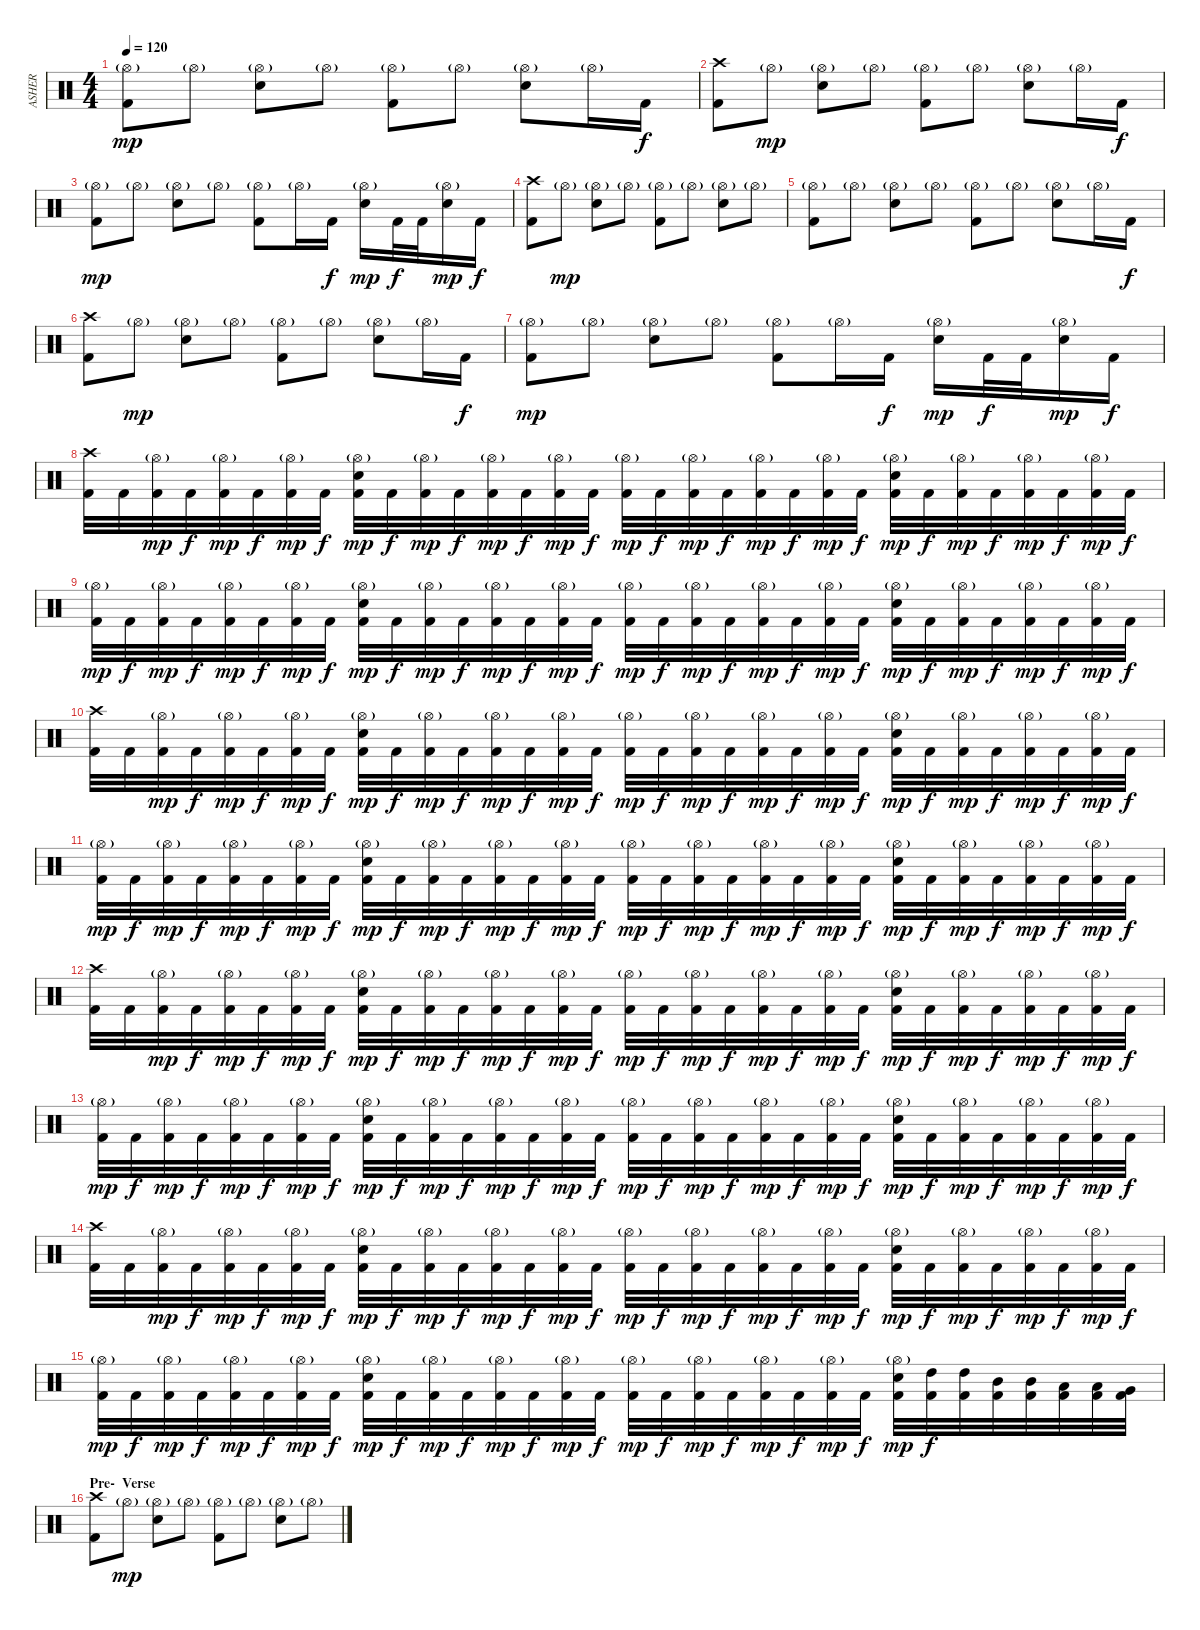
\track ("ASHER" "ASHER") {instrument percussion}
\staff {score}
\articulation defaults
\ts (4 4)
\tempo 120
\clef neutral
\ks c
("Hi-Hat (open)"{g} "Kick (hit) 2").8{dy mp} "Hi-Hat (open)"{g}.8 ("Hi-Hat (open)"{g} "Electric Snare (hit)").8 "Hi-Hat (open)"{g}.8 ("Hi-Hat (open)"{g} "Kick (hit) 2").8 "Hi-Hat (open)"{g}.8 ("Hi-Hat (open)"{g} "Electric Snare (hit)").8 "Hi-Hat (open)"{g}.16 "Kick (hit) 2".16{dy f} |
("Crash high (hit)" "Kick (hit) 2").8 "Hi-Hat (open)"{g}.8{dy mp} ("Hi-Hat (open)"{g} "Electric Snare (hit)").8 "Hi-Hat (open)"{g}.8 ("Hi-Hat (open)"{g} "Kick (hit) 2").8 "Hi-Hat (open)"{g}.8 ("Hi-Hat (open)"{g} "Electric Snare (hit)").8 "Hi-Hat (open)"{g}.16 "Kick (hit) 2".16{dy f} |
("Hi-Hat (open)"{g} "Kick (hit) 2").8{dy mp} "Hi-Hat (open)"{g}.8 ("Hi-Hat (open)"{g} "Electric Snare (hit)").8 "Hi-Hat (open)"{g}.8 ("Hi-Hat (open)"{g} "Kick (hit) 2").8 "Hi-Hat (open)"{g}.16 "Kick (hit) 2".16{dy f} ("Hi-Hat (open)"{g} "Electric Snare (hit)").16{dy mp} "Kick (hit) 2".32{dy f} "Kick (hit) 2".32 ("Hi-Hat (open)"{g} "Electric Snare (hit)").16{dy mp} "Kick (hit) 2".16{dy f} |
("Crash high (hit)" "Kick (hit) 2").8 "Hi-Hat (open)"{g}.8{dy mp} ("Hi-Hat (open)"{g} "Electric Snare (hit)").8 "Hi-Hat (open)"{g}.8 ("Hi-Hat (open)"{g} "Kick (hit) 2").8 "Hi-Hat (open)"{g}.8 ("Hi-Hat (open)"{g} "Electric Snare (hit)").8 "Hi-Hat (open)"{g}.8 |
("Hi-Hat (open)"{g} "Kick (hit) 2").8 "Hi-Hat (open)"{g}.8 ("Hi-Hat (open)"{g} "Electric Snare (hit)").8 "Hi-Hat (open)"{g}.8 ("Hi-Hat (open)"{g} "Kick (hit) 2").8 "Hi-Hat (open)"{g}.8 ("Hi-Hat (open)"{g} "Electric Snare (hit)").8 "Hi-Hat (open)"{g}.16 "Kick (hit) 2".16{dy f} |
("Crash high (hit)" "Kick (hit) 2").8 "Hi-Hat (open)"{g}.8{dy mp} ("Hi-Hat (open)"{g} "Electric Snare (hit)").8 "Hi-Hat (open)"{g}.8 ("Hi-Hat (open)"{g} "Kick (hit) 2").8 "Hi-Hat (open)"{g}.8 ("Hi-Hat (open)"{g} "Electric Snare (hit)").8 "Hi-Hat (open)"{g}.16 "Kick (hit) 2".16{dy f} |
("Hi-Hat (open)"{g} "Kick (hit) 2").8{dy mp} "Hi-Hat (open)"{g}.8 ("Hi-Hat (open)"{g} "Electric Snare (hit)").8 "Hi-Hat (open)"{g}.8 ("Hi-Hat (open)"{g} "Kick (hit) 2").8 "Hi-Hat (open)"{g}.16 "Kick (hit) 2".16{dy f} ("Hi-Hat (open)"{g} "Electric Snare (hit)").16{dy mp} "Kick (hit) 2".32{dy f} "Kick (hit) 2".32 ("Hi-Hat (open)"{g} "Electric Snare (hit)").16{dy mp} "Kick (hit) 2".16{dy f} |
("Crash high (hit)" "Kick (hit) 2").32 "Kick (hit) 2".32 ("Hi-Hat (open)"{g} "Kick (hit) 2").32{dy mp} "Kick (hit) 2".32{dy f} ("Hi-Hat (open)"{g} "Kick (hit) 2").32{dy mp} "Kick (hit) 2".32{dy f} ("Hi-Hat (open)"{g} "Kick (hit) 2").32{dy mp} "Kick (hit) 2".32{dy f} ("Hi-Hat (open)"{g} "Electric Snare (hit)" "Kick (hit) 2").32{dy mp} "Kick (hit) 2".32{dy f} ("Hi-Hat (open)"{g} "Kick (hit) 2").32{dy mp} "Kick (hit) 2".32{dy f} ("Hi-Hat (open)"{g} "Kick (hit) 2").32{dy mp} "Kick (hit) 2".32{dy f} ("Hi-Hat (open)"{g} "Kick (hit) 2").32{dy mp} "Kick (hit) 2".32{dy f} ("Hi-Hat (open)"{g} "Kick (hit) 2").32{dy mp} "Kick (hit) 2".32{dy f} ("Hi-Hat (open)"{g} "Kick (hit) 2").32{dy mp} "Kick (hit) 2".32{dy f} ("Hi-Hat (open)"{g} "Kick (hit) 2").32{dy mp} "Kick (hit) 2".32{dy f} ("Hi-Hat (open)"{g} "Kick (hit) 2").32{dy mp} "Kick (hit) 2".32{dy f} ("Hi-Hat (open)"{g} "Electric Snare (hit)" "Kick (hit) 2").32{dy mp} "Kick (hit) 2".32{dy f} ("Hi-Hat (open)"{g} "Kick (hit) 2").32{dy mp} "Kick (hit) 2".32{dy f} ("Hi-Hat (open)"{g} "Kick (hit) 2").32{dy mp} "Kick (hit) 2".32{dy f} ("Hi-Hat (open)"{g} "Kick (hit) 2").32{dy mp} "Kick (hit) 2".32{dy f} |
("Hi-Hat (open)"{g} "Kick (hit) 2").32{dy mp} "Kick (hit) 2".32{dy f} ("Hi-Hat (open)"{g} "Kick (hit) 2").32{dy mp} "Kick (hit) 2".32{dy f} ("Hi-Hat (open)"{g} "Kick (hit) 2").32{dy mp} "Kick (hit) 2".32{dy f} ("Hi-Hat (open)"{g} "Kick (hit) 2").32{dy mp} "Kick (hit) 2".32{dy f} ("Hi-Hat (open)"{g} "Electric Snare (hit)" "Kick (hit) 2").32{dy mp} "Kick (hit) 2".32{dy f} ("Hi-Hat (open)"{g} "Kick (hit) 2").32{dy mp} "Kick (hit) 2".32{dy f} ("Hi-Hat (open)"{g} "Kick (hit) 2").32{dy mp} "Kick (hit) 2".32{dy f} ("Hi-Hat (open)"{g} "Kick (hit) 2").32{dy mp} "Kick (hit) 2".32{dy f} ("Hi-Hat (open)"{g} "Kick (hit) 2").32{dy mp} "Kick (hit) 2".32{dy f} ("Hi-Hat (open)"{g} "Kick (hit) 2").32{dy mp} "Kick (hit) 2".32{dy f} ("Hi-Hat (open)"{g} "Kick (hit) 2").32{dy mp} "Kick (hit) 2".32{dy f} ("Hi-Hat (open)"{g} "Kick (hit) 2").32{dy mp} "Kick (hit) 2".32{dy f} ("Hi-Hat (open)"{g} "Electric Snare (hit)" "Kick (hit) 2").32{dy mp} "Kick (hit) 2".32{dy f} ("Hi-Hat (open)"{g} "Kick (hit) 2").32{dy mp} "Kick (hit) 2".32{dy f} ("Hi-Hat (open)"{g} "Kick (hit) 2").32{dy mp} "Kick (hit) 2".32{dy f} ("Hi-Hat (open)"{g} "Kick (hit) 2").32{dy mp} "Kick (hit) 2".32{dy f} |
("Crash high (hit)" "Kick (hit) 2").32 "Kick (hit) 2".32 ("Hi-Hat (open)"{g} "Kick (hit) 2").32{dy mp} "Kick (hit) 2".32{dy f} ("Hi-Hat (open)"{g} "Kick (hit) 2").32{dy mp} "Kick (hit) 2".32{dy f} ("Hi-Hat (open)"{g} "Kick (hit) 2").32{dy mp} "Kick (hit) 2".32{dy f} ("Hi-Hat (open)"{g} "Electric Snare (hit)" "Kick (hit) 2").32{dy mp} "Kick (hit) 2".32{dy f} ("Hi-Hat (open)"{g} "Kick (hit) 2").32{dy mp} "Kick (hit) 2".32{dy f} ("Hi-Hat (open)"{g} "Kick (hit) 2").32{dy mp} "Kick (hit) 2".32{dy f} ("Hi-Hat (open)"{g} "Kick (hit) 2").32{dy mp} "Kick (hit) 2".32{dy f} ("Hi-Hat (open)"{g} "Kick (hit) 2").32{dy mp} "Kick (hit) 2".32{dy f} ("Hi-Hat (open)"{g} "Kick (hit) 2").32{dy mp} "Kick (hit) 2".32{dy f} ("Hi-Hat (open)"{g} "Kick (hit) 2").32{dy mp} "Kick (hit) 2".32{dy f} ("Hi-Hat (open)"{g} "Kick (hit) 2").32{dy mp} "Kick (hit) 2".32{dy f} ("Hi-Hat (open)"{g} "Electric Snare (hit)" "Kick (hit) 2").32{dy mp} "Kick (hit) 2".32{dy f} ("Hi-Hat (open)"{g} "Kick (hit) 2").32{dy mp} "Kick (hit) 2".32{dy f} ("Hi-Hat (open)"{g} "Kick (hit) 2").32{dy mp} "Kick (hit) 2".32{dy f} ("Hi-Hat (open)"{g} "Kick (hit) 2").32{dy mp} "Kick (hit) 2".32{dy f} |
("Hi-Hat (open)"{g} "Kick (hit) 2").32{dy mp} "Kick (hit) 2".32{dy f} ("Hi-Hat (open)"{g} "Kick (hit) 2").32{dy mp} "Kick (hit) 2".32{dy f} ("Hi-Hat (open)"{g} "Kick (hit) 2").32{dy mp} "Kick (hit) 2".32{dy f} ("Hi-Hat (open)"{g} "Kick (hit) 2").32{dy mp} "Kick (hit) 2".32{dy f} ("Hi-Hat (open)"{g} "Electric Snare (hit)" "Kick (hit) 2").32{dy mp} "Kick (hit) 2".32{dy f} ("Hi-Hat (open)"{g} "Kick (hit) 2").32{dy mp} "Kick (hit) 2".32{dy f} ("Hi-Hat (open)"{g} "Kick (hit) 2").32{dy mp} "Kick (hit) 2".32{dy f} ("Hi-Hat (open)"{g} "Kick (hit) 2").32{dy mp} "Kick (hit) 2".32{dy f} ("Hi-Hat (open)"{g} "Kick (hit) 2").32{dy mp} "Kick (hit) 2".32{dy f} ("Hi-Hat (open)"{g} "Kick (hit) 2").32{dy mp} "Kick (hit) 2".32{dy f} ("Hi-Hat (open)"{g} "Kick (hit) 2").32{dy mp} "Kick (hit) 2".32{dy f} ("Hi-Hat (open)"{g} "Kick (hit) 2").32{dy mp} "Kick (hit) 2".32{dy f} ("Hi-Hat (open)"{g} "Electric Snare (hit)" "Kick (hit) 2").32{dy mp} "Kick (hit) 2".32{dy f} ("Hi-Hat (open)"{g} "Kick (hit) 2").32{dy mp} "Kick (hit) 2".32{dy f} ("Hi-Hat (open)"{g} "Kick (hit) 2").32{dy mp} "Kick (hit) 2".32{dy f} ("Hi-Hat (open)"{g} "Kick (hit) 2").32{dy mp} "Kick (hit) 2".32{dy f} |
("Crash high (hit)" "Kick (hit) 2").32 "Kick (hit) 2".32 ("Hi-Hat (open)"{g} "Kick (hit) 2").32{dy mp} "Kick (hit) 2".32{dy f} ("Hi-Hat (open)"{g} "Kick (hit) 2").32{dy mp} "Kick (hit) 2".32{dy f} ("Hi-Hat (open)"{g} "Kick (hit) 2").32{dy mp} "Kick (hit) 2".32{dy f} ("Hi-Hat (open)"{g} "Electric Snare (hit)" "Kick (hit) 2").32{dy mp} "Kick (hit) 2".32{dy f} ("Hi-Hat (open)"{g} "Kick (hit) 2").32{dy mp} "Kick (hit) 2".32{dy f} ("Hi-Hat (open)"{g} "Kick (hit) 2").32{dy mp} "Kick (hit) 2".32{dy f} ("Hi-Hat (open)"{g} "Kick (hit) 2").32{dy mp} "Kick (hit) 2".32{dy f} ("Hi-Hat (open)"{g} "Kick (hit) 2").32{dy mp} "Kick (hit) 2".32{dy f} ("Hi-Hat (open)"{g} "Kick (hit) 2").32{dy mp} "Kick (hit) 2".32{dy f} ("Hi-Hat (open)"{g} "Kick (hit) 2").32{dy mp} "Kick (hit) 2".32{dy f} ("Hi-Hat (open)"{g} "Kick (hit) 2").32{dy mp} "Kick (hit) 2".32{dy f} ("Hi-Hat (open)"{g} "Electric Snare (hit)" "Kick (hit) 2").32{dy mp} "Kick (hit) 2".32{dy f} ("Hi-Hat (open)"{g} "Kick (hit) 2").32{dy mp} "Kick (hit) 2".32{dy f} ("Hi-Hat (open)"{g} "Kick (hit) 2").32{dy mp} "Kick (hit) 2".32{dy f} ("Hi-Hat (open)"{g} "Kick (hit) 2").32{dy mp} "Kick (hit) 2".32{dy f} |
("Hi-Hat (open)"{g} "Kick (hit) 2").32{dy mp} "Kick (hit) 2".32{dy f} ("Hi-Hat (open)"{g} "Kick (hit) 2").32{dy mp} "Kick (hit) 2".32{dy f} ("Hi-Hat (open)"{g} "Kick (hit) 2").32{dy mp} "Kick (hit) 2".32{dy f} ("Hi-Hat (open)"{g} "Kick (hit) 2").32{dy mp} "Kick (hit) 2".32{dy f} ("Hi-Hat (open)"{g} "Electric Snare (hit)" "Kick (hit) 2").32{dy mp} "Kick (hit) 2".32{dy f} ("Hi-Hat (open)"{g} "Kick (hit) 2").32{dy mp} "Kick (hit) 2".32{dy f} ("Hi-Hat (open)"{g} "Kick (hit) 2").32{dy mp} "Kick (hit) 2".32{dy f} ("Hi-Hat (open)"{g} "Kick (hit) 2").32{dy mp} "Kick (hit) 2".32{dy f} ("Hi-Hat (open)"{g} "Kick (hit) 2").32{dy mp} "Kick (hit) 2".32{dy f} ("Hi-Hat (open)"{g} "Kick (hit) 2").32{dy mp} "Kick (hit) 2".32{dy f} ("Hi-Hat (open)"{g} "Kick (hit) 2").32{dy mp} "Kick (hit) 2".32{dy f} ("Hi-Hat (open)"{g} "Kick (hit) 2").32{dy mp} "Kick (hit) 2".32{dy f} ("Hi-Hat (open)"{g} "Electric Snare (hit)" "Kick (hit) 2").32{dy mp} "Kick (hit) 2".32{dy f} ("Hi-Hat (open)"{g} "Kick (hit) 2").32{dy mp} "Kick (hit) 2".32{dy f} ("Hi-Hat (open)"{g} "Kick (hit) 2").32{dy mp} "Kick (hit) 2".32{dy f} ("Hi-Hat (open)"{g} "Kick (hit) 2").32{dy mp} "Kick (hit) 2".32{dy f} |
("Crash high (hit)" "Kick (hit) 2").32 "Kick (hit) 2".32 ("Hi-Hat (open)"{g} "Kick (hit) 2").32{dy mp} "Kick (hit) 2".32{dy f} ("Hi-Hat (open)"{g} "Kick (hit) 2").32{dy mp} "Kick (hit) 2".32{dy f} ("Hi-Hat (open)"{g} "Kick (hit) 2").32{dy mp} "Kick (hit) 2".32{dy f} ("Hi-Hat (open)"{g} "Electric Snare (hit)" "Kick (hit) 2").32{dy mp} "Kick (hit) 2".32{dy f} ("Hi-Hat (open)"{g} "Kick (hit) 2").32{dy mp} "Kick (hit) 2".32{dy f} ("Hi-Hat (open)"{g} "Kick (hit) 2").32{dy mp} "Kick (hit) 2".32{dy f} ("Hi-Hat (open)"{g} "Kick (hit) 2").32{dy mp} "Kick (hit) 2".32{dy f} ("Hi-Hat (open)"{g} "Kick (hit) 2").32{dy mp} "Kick (hit) 2".32{dy f} ("Hi-Hat (open)"{g} "Kick (hit) 2").32{dy mp} "Kick (hit) 2".32{dy f} ("Hi-Hat (open)"{g} "Kick (hit) 2").32{dy mp} "Kick (hit) 2".32{dy f} ("Hi-Hat (open)"{g} "Kick (hit) 2").32{dy mp} "Kick (hit) 2".32{dy f} ("Hi-Hat (open)"{g} "Electric Snare (hit)" "Kick (hit) 2").32{dy mp} "Kick (hit) 2".32{dy f} ("Hi-Hat (open)"{g} "Kick (hit) 2").32{dy mp} "Kick (hit) 2".32{dy f} ("Hi-Hat (open)"{g} "Kick (hit) 2").32{dy mp} "Kick (hit) 2".32{dy f} ("Hi-Hat (open)"{g} "Kick (hit) 2").32{dy mp} "Kick (hit) 2".32{dy f} |
("Hi-Hat (open)"{g} "Kick (hit) 2").32{dy mp} "Kick (hit) 2".32{dy f} ("Hi-Hat (open)"{g} "Kick (hit) 2").32{dy mp} "Kick (hit) 2".32{dy f} ("Hi-Hat (open)"{g} "Kick (hit) 2").32{dy mp} "Kick (hit) 2".32{dy f} ("Hi-Hat (open)"{g} "Kick (hit) 2").32{dy mp} "Kick (hit) 2".32{dy f} ("Hi-Hat (open)"{g} "Electric Snare (hit)" "Kick (hit) 2").32{dy mp} "Kick (hit) 2".32{dy f} ("Hi-Hat (open)"{g} "Kick (hit) 2").32{dy mp} "Kick (hit) 2".32{dy f} ("Hi-Hat (open)"{g} "Kick (hit) 2").32{dy mp} "Kick (hit) 2".32{dy f} ("Hi-Hat (open)"{g} "Kick (hit) 2").32{dy mp} "Kick (hit) 2".32{dy f} ("Hi-Hat (open)"{g} "Kick (hit) 2").32{dy mp} "Kick (hit) 2".32{dy f} ("Hi-Hat (open)"{g} "Kick (hit) 2").32{dy mp} "Kick (hit) 2".32{dy f} ("Hi-Hat (open)"{g} "Kick (hit) 2").32{dy mp} "Kick (hit) 2".32{dy f} ("Hi-Hat (open)"{g} "Kick (hit) 2").32{dy mp} "Kick (hit) 2".32{dy f} ("Hi-Hat (open)"{g} "Electric Snare (hit)" "Kick (hit) 2").32{dy mp} ("High Tom (hit)" "Kick (hit) 2").32{dy f} ("High Tom (hit)" "Kick (hit) 2").32 ("Mid Tom (hit)" "Kick (hit) 2").32 ("Mid Tom (hit)" "Kick (hit) 2").32 ("Low Tom (hit)" "Kick (hit) 2").32 ("Low Tom (hit)" "Kick (hit) 2").32 ("Very Low Tom (hit)" "Kick (hit) 2").32 |
\section ("" "Pre-  Verse")
("Crash high (hit)" "Kick (hit) 2").8 "Hi-Hat (open)"{g}.8{dy mp} ("Hi-Hat (open)"{g} "Electric Snare (hit)").8 "Hi-Hat (open)"{g}.8 ("Hi-Hat (open)"{g} "Kick (hit) 2").8 "Hi-Hat (open)"{g}.8 ("Hi-Hat (open)"{g} "Electric Snare (hit)").8 "Hi-Hat (open)"{g}.8
